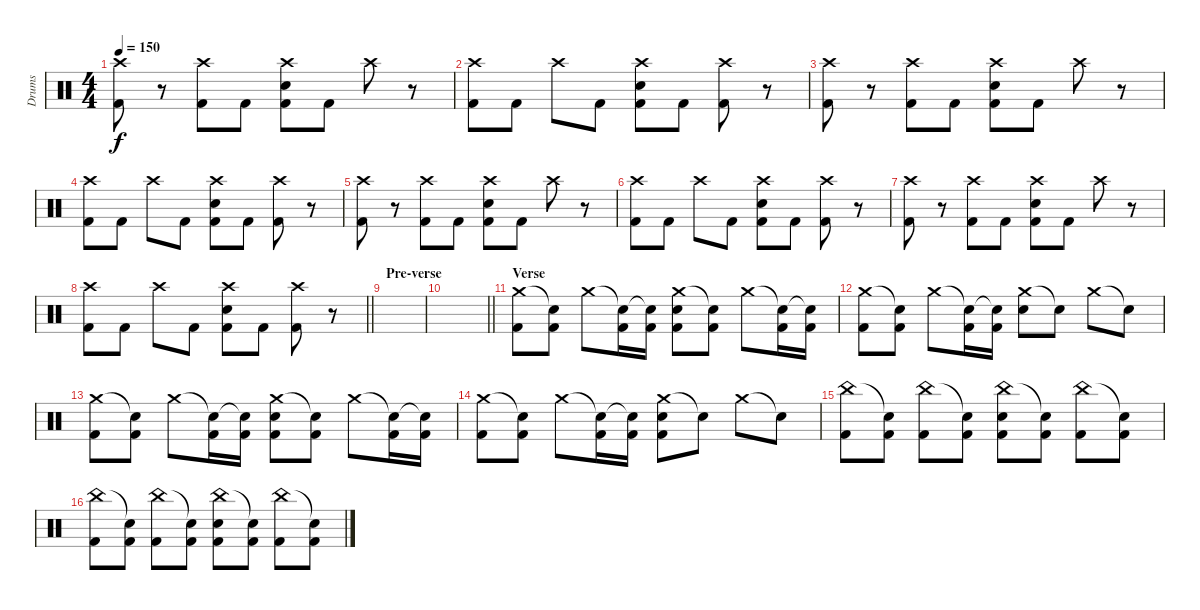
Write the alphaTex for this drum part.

\track ("Drums" "Drums") {instrument percussion}
\staff {score}
\articulation defaults
\ts (4 4)
\tempo 150
\clef neutral
\ks c
("Crash high (hit)" "Kick (hit) 2").8{dy f} r.8 ("Crash high (hit)" "Kick (hit) 2").8 "Kick (hit) 2".8 ("Crash high (hit)" "Electric Snare (hit)" "Kick (hit) 2").8 "Kick (hit) 2".8 "Crash high (hit)".8 r.8 |
("Crash high (hit)" "Kick (hit) 2").8 "Kick (hit) 2".8 "Crash high (hit)".8 "Kick (hit) 2".8 ("Crash high (hit)" "Electric Snare (hit)" "Kick (hit) 2").8 "Kick (hit) 2".8 ("Crash high (hit)" "Kick (hit) 2").8 r.8 |
("Crash high (hit)" "Kick (hit) 2").8 r.8 ("Crash high (hit)" "Kick (hit) 2").8 "Kick (hit) 2".8 ("Crash high (hit)" "Electric Snare (hit)" "Kick (hit) 2").8 "Kick (hit) 2".8 "Crash high (hit)".8 r.8 |
("Crash high (hit)" "Kick (hit) 2").8 "Kick (hit) 2".8 "Crash high (hit)".8 "Kick (hit) 2".8 ("Crash high (hit)" "Electric Snare (hit)" "Kick (hit) 2").8 "Kick (hit) 2".8 ("Crash high (hit)" "Kick (hit) 2").8 r.8 |
("Crash high (hit)" "Kick (hit) 2").8 r.8 ("Crash high (hit)" "Kick (hit) 2").8 "Kick (hit) 2".8 ("Crash high (hit)" "Electric Snare (hit)" "Kick (hit) 2").8 "Kick (hit) 2".8 "Crash high (hit)".8 r.8 |
("Crash high (hit)" "Kick (hit) 2").8 "Kick (hit) 2".8 "Crash high (hit)".8 "Kick (hit) 2".8 ("Crash high (hit)" "Electric Snare (hit)" "Kick (hit) 2").8 "Kick (hit) 2".8 ("Crash high (hit)" "Kick (hit) 2").8 r.8 |
("Crash high (hit)" "Kick (hit) 2").8 r.8 ("Crash high (hit)" "Kick (hit) 2").8 "Kick (hit) 2".8 ("Crash high (hit)" "Electric Snare (hit)" "Kick (hit) 2").8 "Kick (hit) 2".8 "Crash high (hit)".8 r.8 |
\barLineRight lightlight
("Crash high (hit)" "Kick (hit) 2").8 "Kick (hit) 2".8 "Crash high (hit)".8 "Kick (hit) 2".8 ("Crash high (hit)" "Electric Snare (hit)" "Kick (hit) 2").8 "Kick (hit) 2".8 ("Crash high (hit)" "Kick (hit) 2").8 r.8 |
\section ("" "Pre-verse")
|
\barLineRight lightlight
|
\section ("" "Verse")
("Crash medium (hit)" "Kick (hit) 2").8 ("Snare (hit)"{t} "Kick (hit) 2").8 "Crash medium (hit)".8 ("Snare (hit)"{t} "Kick (hit) 2").16 ("Snare (hit)"{t} "Kick (hit) 2").16 ("Crash medium (hit)" "Electric Snare (hit)" "Kick (hit) 2").8 ("Snare (hit)"{t} "Kick (hit) 2").8 "Crash medium (hit)".8 ("Snare (hit)"{t} "Kick (hit) 2").16 ("Snare (hit)"{t} "Kick (hit) 2").16 |
("Crash medium (hit)" "Kick (hit) 2").8 ("Snare (hit)"{t} "Kick (hit) 2").8 "Crash medium (hit)".8 ("Snare (hit)"{t} "Kick (hit) 2").16 ("Snare (hit)"{t} "Kick (hit) 2").16 ("Crash medium (hit)" "Electric Snare (hit)").8 "Snare (hit)"{t}.8 "Crash medium (hit)".8 "Snare (hit)"{t}.8 |
("Crash medium (hit)" "Kick (hit) 2").8 ("Snare (hit)"{t} "Kick (hit) 2").8 "Crash medium (hit)".8 ("Snare (hit)"{t} "Kick (hit) 2").16 ("Snare (hit)"{t} "Kick (hit) 2").16 ("Crash medium (hit)" "Electric Snare (hit)" "Kick (hit) 2").8 ("Snare (hit)"{t} "Kick (hit) 2").8 "Crash medium (hit)".8 ("Snare (hit)"{t} "Kick (hit) 2").16 ("Snare (hit)"{t} "Kick (hit) 2").16 |
("Crash medium (hit)" "Kick (hit) 2").8 ("Snare (hit)"{t} "Kick (hit) 2").8 "Crash medium (hit)".8 ("Snare (hit)"{t} "Kick (hit) 2").16 ("Snare (hit)"{t} "Kick (hit) 2").16 ("Crash medium (hit)" "Electric Snare (hit)" "Kick (hit) 2").8 "Snare (hit)"{t}.8 "Crash medium (hit)".8 "Snare (hit)"{t}.8 |
("China (hit)" "Kick (hit) 2").8 ("Snare (hit)"{t} "Kick (hit) 2").8 ("China (hit)" "Kick (hit) 2").8 ("Snare (hit)"{t} "Kick (hit) 2").8 ("China (hit)" "Electric Snare (hit)" "Kick (hit) 2").8 ("Snare (hit)"{t} "Kick (hit) 2").8 ("China (hit)" "Kick (hit) 2").8 ("Snare (hit)"{t} "Kick (hit) 2").8 |
("China (hit)" "Kick (hit) 2").8 ("Snare (hit)"{t} "Kick (hit) 2").8 ("China (hit)" "Kick (hit) 2").8 ("Snare (hit)"{t} "Kick (hit) 2").8 ("China (hit)" "Electric Snare (hit)" "Kick (hit) 2").8 ("Snare (hit)"{t} "Kick (hit) 2").8 ("China (hit)" "Kick (hit) 2").8 ("Snare (hit)"{t} "Kick (hit) 2").8
